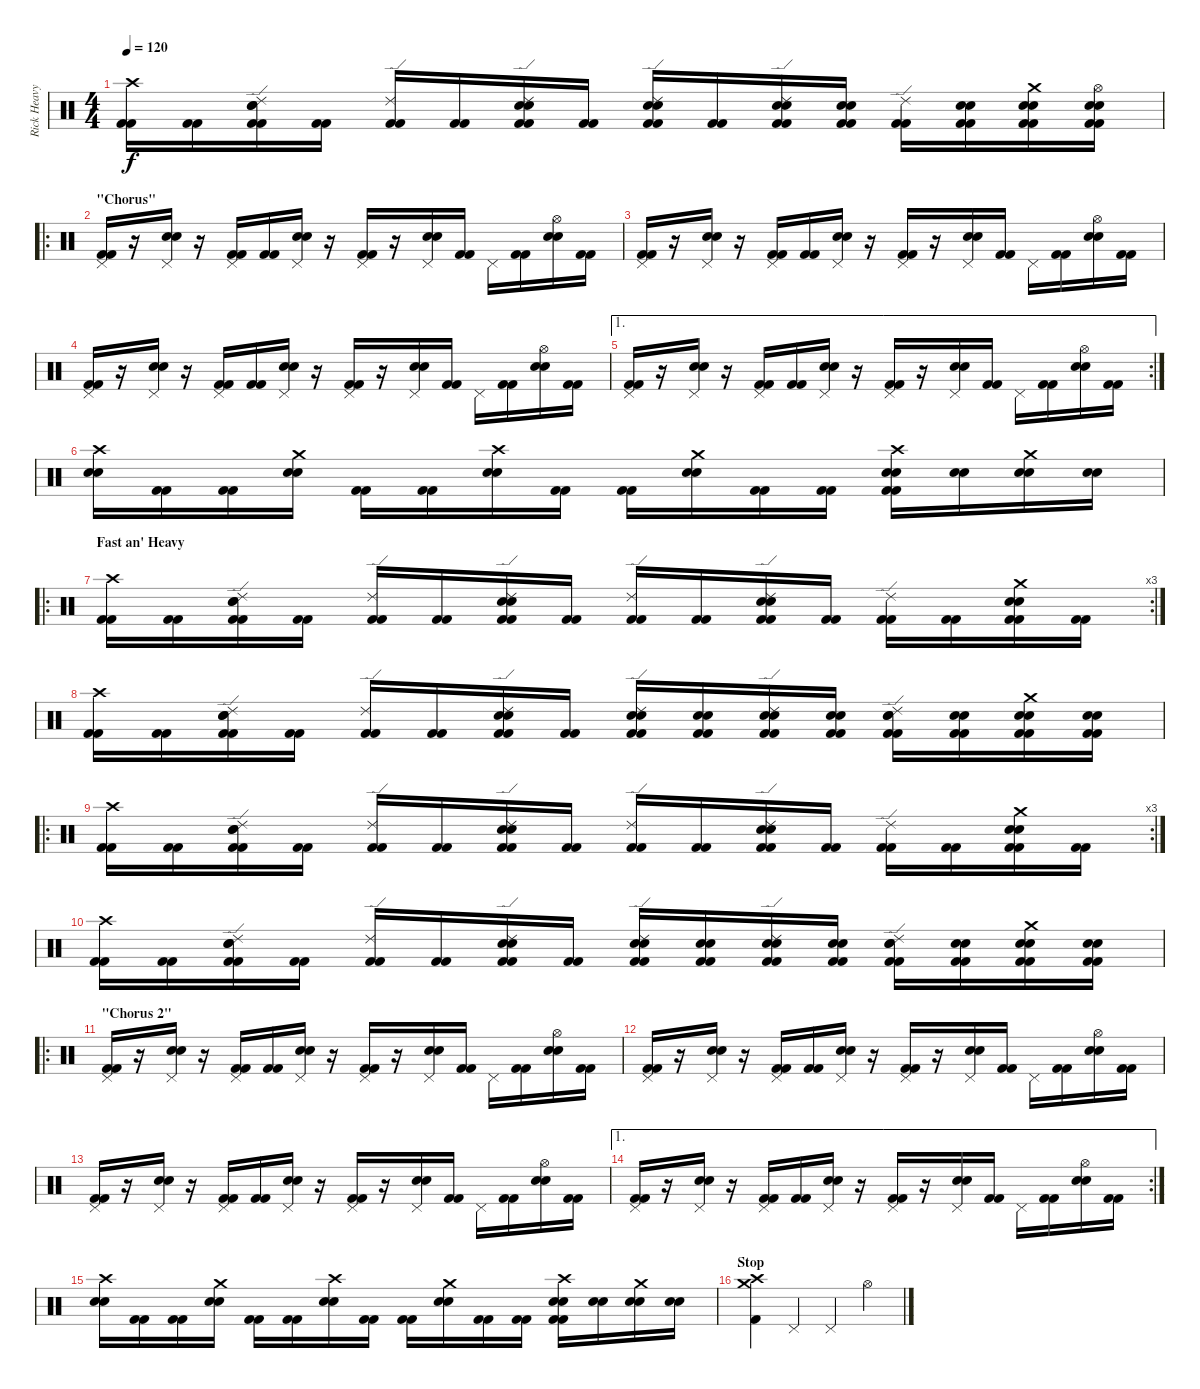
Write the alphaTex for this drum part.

\track ("Rick Heavy" "Rick Heavy") {instrument percussion}
\staff {score}
\articulation defaults
\ts (4 4)
\tempo 120
\clef neutral
\ks c
("Crash high (hit)" "Kick (hit) 2" "Kick (hit) 2").16{dy f} ("Kick (hit) 2" "Kick (hit) 2").16 ("Ride (edge) 2" "Electric Snare (hit)" "Snare (hit) 2" "Kick (hit) 2" "Kick (hit) 2").16 ("Kick (hit) 2" "Kick (hit) 2").16 ("Ride (edge) 2" "Kick (hit) 2" "Kick (hit) 2").16 ("Kick (hit) 2" "Kick (hit) 2").16 ("Ride (edge) 2" "Electric Snare (hit)" "Snare (hit) 2" "Kick (hit) 2" "Kick (hit) 2").16 ("Kick (hit) 2" "Kick (hit) 2").16 ("Ride (edge) 2" "Electric Snare (hit)" "Snare (hit) 2" "Kick (hit) 2" "Kick (hit) 2").16 ("Kick (hit) 2" "Kick (hit) 2").16 ("Ride (edge) 2" "Electric Snare (hit)" "Snare (hit) 2" "Kick (hit) 2" "Kick (hit) 2").16 ("Electric Snare (hit)" "Snare (hit) 2" "Kick (hit) 2" "Kick (hit) 2").16 ("Ride (edge) 2" "Kick (hit) 2" "Kick (hit) 2").16 ("Electric Snare (hit)" "Snare (hit) 2" "Kick (hit) 2" "Kick (hit) 2").16 ("Crash medium (hit)" "Electric Snare (hit)" "Snare (hit) 2" "Kick (hit) 2" "Kick (hit) 2").16 ("Hi-Hat (open)" "Electric Snare (hit)" "Snare (hit) 2" "Kick (hit) 2" "Kick (hit) 2").16 |
\ro
\section ("" "\"Chorus\"")
("Pedal Hi-Hat (hit)" "Kick (hit) 2" "Kick (hit) 2").16 r.16 ("Pedal Hi-Hat (hit)" "Electric Snare (hit)" "Snare (hit) 2").16 r.16 ("Pedal Hi-Hat (hit)" "Kick (hit) 2" "Kick (hit) 2").16 ("Kick (hit) 2" "Kick (hit) 2").16 ("Pedal Hi-Hat (hit)" "Electric Snare (hit)" "Snare (hit) 2").16 r.16 ("Pedal Hi-Hat (hit)" "Kick (hit) 2" "Kick (hit) 2").16 r.16 ("Pedal Hi-Hat (hit)" "Electric Snare (hit)" "Snare (hit) 2").16 ("Kick (hit) 2" "Kick (hit) 2").16 "Pedal Hi-Hat (hit)".16 ("Kick (hit) 2" "Kick (hit) 2").16 ("Hi-Hat (open)" "Electric Snare (hit)" "Snare (hit) 2").16 ("Kick (hit) 2" "Kick (hit) 2").16 |
("Pedal Hi-Hat (hit)" "Kick (hit) 2" "Kick (hit) 2").16 r.16 ("Pedal Hi-Hat (hit)" "Electric Snare (hit)" "Snare (hit) 2").16 r.16 ("Pedal Hi-Hat (hit)" "Kick (hit) 2" "Kick (hit) 2").16 ("Kick (hit) 2" "Kick (hit) 2").16 ("Pedal Hi-Hat (hit)" "Electric Snare (hit)" "Snare (hit) 2").16 r.16 ("Pedal Hi-Hat (hit)" "Kick (hit) 2" "Kick (hit) 2").16 r.16 ("Pedal Hi-Hat (hit)" "Electric Snare (hit)" "Snare (hit) 2").16 ("Kick (hit) 2" "Kick (hit) 2").16 "Pedal Hi-Hat (hit)".16 ("Kick (hit) 2" "Kick (hit) 2").16 ("Hi-Hat (open)" "Electric Snare (hit)" "Snare (hit) 2").16 ("Kick (hit) 2" "Kick (hit) 2").16 |
("Pedal Hi-Hat (hit)" "Kick (hit) 2" "Kick (hit) 2").16 r.16 ("Pedal Hi-Hat (hit)" "Electric Snare (hit)" "Snare (hit) 2").16 r.16 ("Pedal Hi-Hat (hit)" "Kick (hit) 2" "Kick (hit) 2").16 ("Kick (hit) 2" "Kick (hit) 2").16 ("Pedal Hi-Hat (hit)" "Electric Snare (hit)" "Snare (hit) 2").16 r.16 ("Pedal Hi-Hat (hit)" "Kick (hit) 2" "Kick (hit) 2").16 r.16 ("Pedal Hi-Hat (hit)" "Electric Snare (hit)" "Snare (hit) 2").16 ("Kick (hit) 2" "Kick (hit) 2").16 "Pedal Hi-Hat (hit)".16 ("Kick (hit) 2" "Kick (hit) 2").16 ("Hi-Hat (open)" "Electric Snare (hit)" "Snare (hit) 2").16 ("Kick (hit) 2" "Kick (hit) 2").16 |
\ae 1
\rc 2
("Pedal Hi-Hat (hit)" "Kick (hit) 2" "Kick (hit) 2").16 r.16 ("Pedal Hi-Hat (hit)" "Electric Snare (hit)" "Snare (hit) 2").16 r.16 ("Pedal Hi-Hat (hit)" "Kick (hit) 2" "Kick (hit) 2").16 ("Kick (hit) 2" "Kick (hit) 2").16 ("Pedal Hi-Hat (hit)" "Electric Snare (hit)" "Snare (hit) 2").16 r.16 ("Pedal Hi-Hat (hit)" "Kick (hit) 2" "Kick (hit) 2").16 r.16 ("Pedal Hi-Hat (hit)" "Electric Snare (hit)" "Snare (hit) 2").16 ("Kick (hit) 2" "Kick (hit) 2").16 "Pedal Hi-Hat (hit)".16 ("Kick (hit) 2" "Kick (hit) 2").16 ("Hi-Hat (open)" "Electric Snare (hit)" "Snare (hit) 2").16 ("Kick (hit) 2" "Kick (hit) 2").16 |
("Crash high (hit)" "Electric Snare (hit)" "Snare (hit) 2").16 ("Kick (hit) 2" "Kick (hit) 2").16 ("Kick (hit) 2" "Kick (hit) 2").16 ("Crash medium (hit)" "Electric Snare (hit)" "Snare (hit) 2").16 ("Kick (hit) 2" "Kick (hit) 2").16 ("Kick (hit) 2" "Kick (hit) 2").16 ("Crash high (hit)" "Electric Snare (hit)" "Snare (hit) 2").16 ("Kick (hit) 2" "Kick (hit) 2").16 ("Kick (hit) 2" "Kick (hit) 2").16 ("Crash medium (hit)" "Electric Snare (hit)" "Snare (hit) 2").16 ("Kick (hit) 2" "Kick (hit) 2").16 ("Kick (hit) 2" "Kick (hit) 2").16 ("Crash high (hit)" "Electric Snare (hit)" "Snare (hit) 2" "Kick (hit) 2" "Kick (hit) 2").16 ("Electric Snare (hit)" "Snare (hit) 2").16 ("Crash medium (hit)" "Electric Snare (hit)" "Snare (hit) 2").16 ("Electric Snare (hit)" "Snare (hit) 2").16 |
\ro
\rc 3
\section ("" "Fast an' Heavy")
("Crash high (hit)" "Kick (hit) 2" "Kick (hit) 2").16 ("Kick (hit) 2" "Kick (hit) 2").16 ("Ride (edge) 2" "Electric Snare (hit)" "Snare (hit) 2" "Kick (hit) 2" "Kick (hit) 2").16 ("Kick (hit) 2" "Kick (hit) 2").16 ("Ride (edge) 2" "Kick (hit) 2" "Kick (hit) 2").16 ("Kick (hit) 2" "Kick (hit) 2").16 ("Ride (edge) 2" "Electric Snare (hit)" "Snare (hit) 2" "Kick (hit) 2" "Kick (hit) 2").16 ("Kick (hit) 2" "Kick (hit) 2").16 ("Ride (edge) 2" "Kick (hit) 2" "Kick (hit) 2").16 ("Kick (hit) 2" "Kick (hit) 2").16 ("Ride (edge) 2" "Electric Snare (hit)" "Snare (hit) 2" "Kick (hit) 2" "Kick (hit) 2").16 ("Kick (hit) 2" "Kick (hit) 2").16 ("Ride (edge) 2" "Kick (hit) 2" "Kick (hit) 2").16 ("Kick (hit) 2" "Kick (hit) 2").16 ("Crash medium (hit)" "Electric Snare (hit)" "Snare (hit) 2" "Kick (hit) 2" "Kick (hit) 2").16 ("Kick (hit) 2" "Kick (hit) 2").16 |
("Crash high (hit)" "Kick (hit) 2" "Kick (hit) 2").16 ("Kick (hit) 2" "Kick (hit) 2").16 ("Ride (edge) 2" "Electric Snare (hit)" "Snare (hit) 2" "Kick (hit) 2" "Kick (hit) 2").16 ("Kick (hit) 2" "Kick (hit) 2").16 ("Ride (edge) 2" "Kick (hit) 2" "Kick (hit) 2").16 ("Kick (hit) 2" "Kick (hit) 2").16 ("Ride (edge) 2" "Electric Snare (hit)" "Snare (hit) 2" "Kick (hit) 2" "Kick (hit) 2").16 ("Kick (hit) 2" "Kick (hit) 2").16 ("Ride (edge) 2" "Electric Snare (hit)" "Snare (hit) 2" "Kick (hit) 2" "Kick (hit) 2").16 ("Electric Snare (hit)" "Snare (hit) 2" "Kick (hit) 2" "Kick (hit) 2").16 ("Ride (edge) 2" "Electric Snare (hit)" "Snare (hit) 2" "Kick (hit) 2" "Kick (hit) 2").16 ("Electric Snare (hit)" "Snare (hit) 2" "Kick (hit) 2" "Kick (hit) 2").16 ("Ride (edge) 2" "Electric Snare (hit)" "Snare (hit) 2" "Kick (hit) 2" "Kick (hit) 2").16 ("Electric Snare (hit)" "Snare (hit) 2" "Kick (hit) 2" "Kick (hit) 2").16 ("Crash medium (hit)" "Electric Snare (hit)" "Snare (hit) 2" "Kick (hit) 2" "Kick (hit) 2").16 ("Electric Snare (hit)" "Snare (hit) 2" "Kick (hit) 2" "Kick (hit) 2").16 |
\ro
\rc 3
("Crash high (hit)" "Kick (hit) 2" "Kick (hit) 2").16 ("Kick (hit) 2" "Kick (hit) 2").16 ("Ride (edge) 2" "Electric Snare (hit)" "Snare (hit) 2" "Kick (hit) 2" "Kick (hit) 2").16 ("Kick (hit) 2" "Kick (hit) 2").16 ("Ride (edge) 2" "Kick (hit) 2" "Kick (hit) 2").16 ("Kick (hit) 2" "Kick (hit) 2").16 ("Ride (edge) 2" "Electric Snare (hit)" "Snare (hit) 2" "Kick (hit) 2" "Kick (hit) 2").16 ("Kick (hit) 2" "Kick (hit) 2").16 ("Ride (edge) 2" "Kick (hit) 2" "Kick (hit) 2").16 ("Kick (hit) 2" "Kick (hit) 2").16 ("Ride (edge) 2" "Electric Snare (hit)" "Snare (hit) 2" "Kick (hit) 2" "Kick (hit) 2").16 ("Kick (hit) 2" "Kick (hit) 2").16 ("Ride (edge) 2" "Kick (hit) 2" "Kick (hit) 2").16 ("Kick (hit) 2" "Kick (hit) 2").16 ("Crash medium (hit)" "Electric Snare (hit)" "Snare (hit) 2" "Kick (hit) 2" "Kick (hit) 2").16 ("Kick (hit) 2" "Kick (hit) 2").16 |
("Crash high (hit)" "Kick (hit) 2" "Kick (hit) 2").16 ("Kick (hit) 2" "Kick (hit) 2").16 ("Ride (edge) 2" "Electric Snare (hit)" "Snare (hit) 2" "Kick (hit) 2" "Kick (hit) 2").16 ("Kick (hit) 2" "Kick (hit) 2").16 ("Ride (edge) 2" "Kick (hit) 2" "Kick (hit) 2").16 ("Kick (hit) 2" "Kick (hit) 2").16 ("Ride (edge) 2" "Electric Snare (hit)" "Snare (hit) 2" "Kick (hit) 2" "Kick (hit) 2").16 ("Kick (hit) 2" "Kick (hit) 2").16 ("Ride (edge) 2" "Electric Snare (hit)" "Snare (hit) 2" "Kick (hit) 2" "Kick (hit) 2").16 ("Electric Snare (hit)" "Snare (hit) 2" "Kick (hit) 2" "Kick (hit) 2").16 ("Ride (edge) 2" "Electric Snare (hit)" "Snare (hit) 2" "Kick (hit) 2" "Kick (hit) 2").16 ("Electric Snare (hit)" "Snare (hit) 2" "Kick (hit) 2" "Kick (hit) 2").16 ("Ride (edge) 2" "Electric Snare (hit)" "Snare (hit) 2" "Kick (hit) 2" "Kick (hit) 2").16 ("Electric Snare (hit)" "Snare (hit) 2" "Kick (hit) 2" "Kick (hit) 2").16 ("Crash medium (hit)" "Electric Snare (hit)" "Snare (hit) 2" "Kick (hit) 2" "Kick (hit) 2").16 ("Electric Snare (hit)" "Snare (hit) 2" "Kick (hit) 2" "Kick (hit) 2").16 |
\ro
\section ("" "\"Chorus 2\"")
("Pedal Hi-Hat (hit)" "Kick (hit) 2" "Kick (hit) 2").16 r.16 ("Pedal Hi-Hat (hit)" "Electric Snare (hit)" "Snare (hit) 2").16 r.16 ("Pedal Hi-Hat (hit)" "Kick (hit) 2" "Kick (hit) 2").16 ("Kick (hit) 2" "Kick (hit) 2").16 ("Pedal Hi-Hat (hit)" "Electric Snare (hit)" "Snare (hit) 2").16 r.16 ("Pedal Hi-Hat (hit)" "Kick (hit) 2" "Kick (hit) 2").16 r.16 ("Pedal Hi-Hat (hit)" "Electric Snare (hit)" "Snare (hit) 2").16 ("Kick (hit) 2" "Kick (hit) 2").16 "Pedal Hi-Hat (hit)".16 ("Kick (hit) 2" "Kick (hit) 2").16 ("Hi-Hat (open)" "Electric Snare (hit)" "Snare (hit) 2").16 ("Kick (hit) 2" "Kick (hit) 2").16 |
("Pedal Hi-Hat (hit)" "Kick (hit) 2" "Kick (hit) 2").16 r.16 ("Pedal Hi-Hat (hit)" "Electric Snare (hit)" "Snare (hit) 2").16 r.16 ("Pedal Hi-Hat (hit)" "Kick (hit) 2" "Kick (hit) 2").16 ("Kick (hit) 2" "Kick (hit) 2").16 ("Pedal Hi-Hat (hit)" "Electric Snare (hit)" "Snare (hit) 2").16 r.16 ("Pedal Hi-Hat (hit)" "Kick (hit) 2" "Kick (hit) 2").16 r.16 ("Pedal Hi-Hat (hit)" "Electric Snare (hit)" "Snare (hit) 2").16 ("Kick (hit) 2" "Kick (hit) 2").16 "Pedal Hi-Hat (hit)".16 ("Kick (hit) 2" "Kick (hit) 2").16 ("Hi-Hat (open)" "Electric Snare (hit)" "Snare (hit) 2").16 ("Kick (hit) 2" "Kick (hit) 2").16 |
("Pedal Hi-Hat (hit)" "Kick (hit) 2" "Kick (hit) 2").16 r.16 ("Pedal Hi-Hat (hit)" "Electric Snare (hit)" "Snare (hit) 2").16 r.16 ("Pedal Hi-Hat (hit)" "Kick (hit) 2" "Kick (hit) 2").16 ("Kick (hit) 2" "Kick (hit) 2").16 ("Pedal Hi-Hat (hit)" "Electric Snare (hit)" "Snare (hit) 2").16 r.16 ("Pedal Hi-Hat (hit)" "Kick (hit) 2" "Kick (hit) 2").16 r.16 ("Pedal Hi-Hat (hit)" "Electric Snare (hit)" "Snare (hit) 2").16 ("Kick (hit) 2" "Kick (hit) 2").16 "Pedal Hi-Hat (hit)".16 ("Kick (hit) 2" "Kick (hit) 2").16 ("Hi-Hat (open)" "Electric Snare (hit)" "Snare (hit) 2").16 ("Kick (hit) 2" "Kick (hit) 2").16 |
\ae 1
\rc 2
("Pedal Hi-Hat (hit)" "Kick (hit) 2" "Kick (hit) 2").16 r.16 ("Pedal Hi-Hat (hit)" "Electric Snare (hit)" "Snare (hit) 2").16 r.16 ("Pedal Hi-Hat (hit)" "Kick (hit) 2" "Kick (hit) 2").16 ("Kick (hit) 2" "Kick (hit) 2").16 ("Pedal Hi-Hat (hit)" "Electric Snare (hit)" "Snare (hit) 2").16 r.16 ("Pedal Hi-Hat (hit)" "Kick (hit) 2" "Kick (hit) 2").16 r.16 ("Pedal Hi-Hat (hit)" "Electric Snare (hit)" "Snare (hit) 2").16 ("Kick (hit) 2" "Kick (hit) 2").16 "Pedal Hi-Hat (hit)".16 ("Kick (hit) 2" "Kick (hit) 2").16 ("Hi-Hat (open)" "Electric Snare (hit)" "Snare (hit) 2").16 ("Kick (hit) 2" "Kick (hit) 2").16 |
("Crash high (hit)" "Electric Snare (hit)" "Snare (hit) 2").16 ("Kick (hit) 2" "Kick (hit) 2").16 ("Kick (hit) 2" "Kick (hit) 2").16 ("Crash medium (hit)" "Electric Snare (hit)" "Snare (hit) 2").16 ("Kick (hit) 2" "Kick (hit) 2").16 ("Kick (hit) 2" "Kick (hit) 2").16 ("Crash high (hit)" "Electric Snare (hit)" "Snare (hit) 2").16 ("Kick (hit) 2" "Kick (hit) 2").16 ("Kick (hit) 2" "Kick (hit) 2").16 ("Crash medium (hit)" "Electric Snare (hit)" "Snare (hit) 2").16 ("Kick (hit) 2" "Kick (hit) 2").16 ("Kick (hit) 2" "Kick (hit) 2").16 ("Crash high (hit)" "Electric Snare (hit)" "Snare (hit) 2" "Kick (hit) 2" "Kick (hit) 2").16 ("Electric Snare (hit)" "Snare (hit) 2").16 ("Crash medium (hit)" "Electric Snare (hit)" "Snare (hit) 2").16 ("Electric Snare (hit)" "Snare (hit) 2").16 |
\section ("" "Stop")
("Crash high (hit)" "Crash medium (hit)" "Kick (hit) 2").4 "Pedal Hi-Hat (hit)".4 "Pedal Hi-Hat (hit)".4 "Hi-Hat (open)".4
